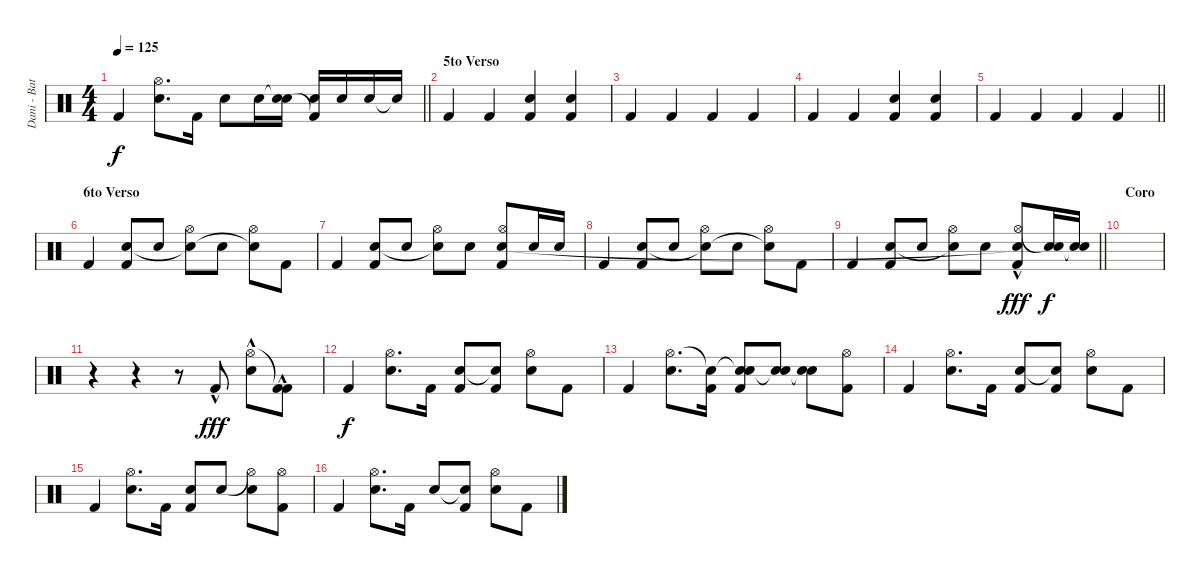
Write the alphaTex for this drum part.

\track ("Dani - Batería" "Dani - Bat") {instrument percussion}
\staff {score}
\articulation defaults
\ts (4 4)
\tempo 125
\clef neutral
\barLineRight lightlight
\ks c "Kick (hit) 2".4{dy f}
("Hi-Hat (open)" "Electric Snare (hit)").8{d} "Kick (hit) 2".16 "Electric Snare (hit)".8 "Electric Snare (hit)".16 ("Snare (hit)"{t} "Electric Snare (hit)").16 ("Electric Snare (hit)" "Kick (hit) 2"{t}).16 "Electric Snare (hit)".16 "Electric Snare (hit)".16 "Snare (hit)"{t}.16 |
\section ("" "5to Verso")
"Kick (hit) 2".4 "Kick (hit) 2".4 ("Kick (hit) 2" "Snare (hit) 2").4 ("Kick (hit) 2" "Snare (hit) 2").4 |
"Kick (hit) 2".4 "Kick (hit) 2".4 "Kick (hit) 2".4 "Kick (hit) 2".4 |
"Kick (hit) 2".4 "Kick (hit) 2".4 ("Kick (hit) 2" "Snare (hit) 2").4 ("Kick (hit) 2" "Snare (hit) 2").4 |
\barLineRight lightlight "Kick (hit) 2".4 "Kick (hit) 2".4 "Kick (hit) 2".4 "Kick (hit) 2".4
|
\section ("" "6to Verso")
"Kick (hit) 2".4 ("Kick (hit) 2" "Electric Snare (hit)").8 "Electric Snare (hit)".8 ("Hi-Hat (open)" "Snare (hit)"{t}).8 "Electric Snare (hit)".8 ("Hi-Hat (open)" "Snare (hit)"{t}).8 "Kick (hit) 2".8 |
"Kick (hit) 2".4 ("Kick (hit) 2" "Electric Snare (hit)").8 "Electric Snare (hit)".8 ("Hi-Hat (open)" "Snare (hit)"{t}).8 "Electric Snare (hit)".8 ("Hi-Hat (open)" "Kick (hit) 2" "Snare (hit)").8 "Electric Snare (hit)".16 "Electric Snare (hit)".16 |
"Kick (hit) 2".4 ("Kick (hit) 2" "Electric Snare (hit)").8 "Electric Snare (hit)".8 ("Hi-Hat (open)" "Snare (hit)"{t}).8 "Electric Snare (hit)".8 ("Hi-Hat (open)" "Snare (hit)"{t}).8 "Kick (hit) 2".8 |
\barLineRight lightlight "Kick (hit) 2".4
("Kick (hit) 2" "Electric Snare (hit)").8 "Electric Snare (hit)".8 ("Hi-Hat (open)" "Snare (hit)"{t}).8 "Electric Snare (hit)".8 ("Hi-Hat (open)"{hac} "Kick (hit) 2" "Snare (hit)"{t}).8{dy fff} ("Snare (hit)"{t} "Electric Snare (hit)").16{dy f} ("Snare (hit)"{t} "Electric Snare (hit)").16 |
\section ("" "Coro")
|
r.4 r.4 r.8 "Kick (hit) 2"{hac}.8{dy fff} ("Hi-Hat (open)"{hac} "Electric Snare (hit)"{hac}).8 ("Kick (hit) 2"{t} "Kick (hit) 2"{hac}).8 |
"Kick (hit) 2".4{dy f} ("Hi-Hat (open)" "Electric Snare (hit)").8{d} "Kick (hit) 2".16 ("Electric Snare (hit)" "Kick (hit) 2").8 ("Snare (hit)"{t} "Kick (hit) 2").8 ("Hi-Hat (open)" "Electric Snare (hit)").8 "Kick (hit) 2".8 |
"Kick (hit) 2".4 ("Hi-Hat (open)" "Electric Snare (hit)").8{d} ("Snare (hit)"{t} "Kick (hit) 2").16 ("Snare (hit)"{t} "Electric Snare (hit)" "Kick (hit) 2").8 ("Snare (hit)"{t} "Electric Snare (hit)").8 ("Snare (hit)"{t} "Electric Snare (hit)").8 ("Hi-Hat (open)" "Kick (hit) 2").8 |
"Kick (hit) 2".4 ("Hi-Hat (open)" "Electric Snare (hit)").8{d} "Kick (hit) 2".16 ("Electric Snare (hit)" "Kick (hit) 2").8 ("Snare (hit)"{t} "Kick (hit) 2").8 ("Hi-Hat (open)" "Electric Snare (hit)").8 "Kick (hit) 2".8 |
"Kick (hit) 2".4 ("Hi-Hat (open)" "Electric Snare (hit)").8{d} "Kick (hit) 2".16 ("Electric Snare (hit)" "Kick (hit) 2").8 "Electric Snare (hit)".8 ("Hi-Hat (open)"{t} "Electric Snare (hit)").8 ("Hi-Hat (open)" "Kick (hit) 2").8 |
"Kick (hit) 2".4 ("Hi-Hat (open)" "Electric Snare (hit)").8{d} "Kick (hit) 2".16 "Electric Snare (hit)".8 ("Snare (hit)"{t} "Kick (hit) 2").8 ("Hi-Hat (open)" "Electric Snare (hit)").8 "Kick (hit) 2".8
